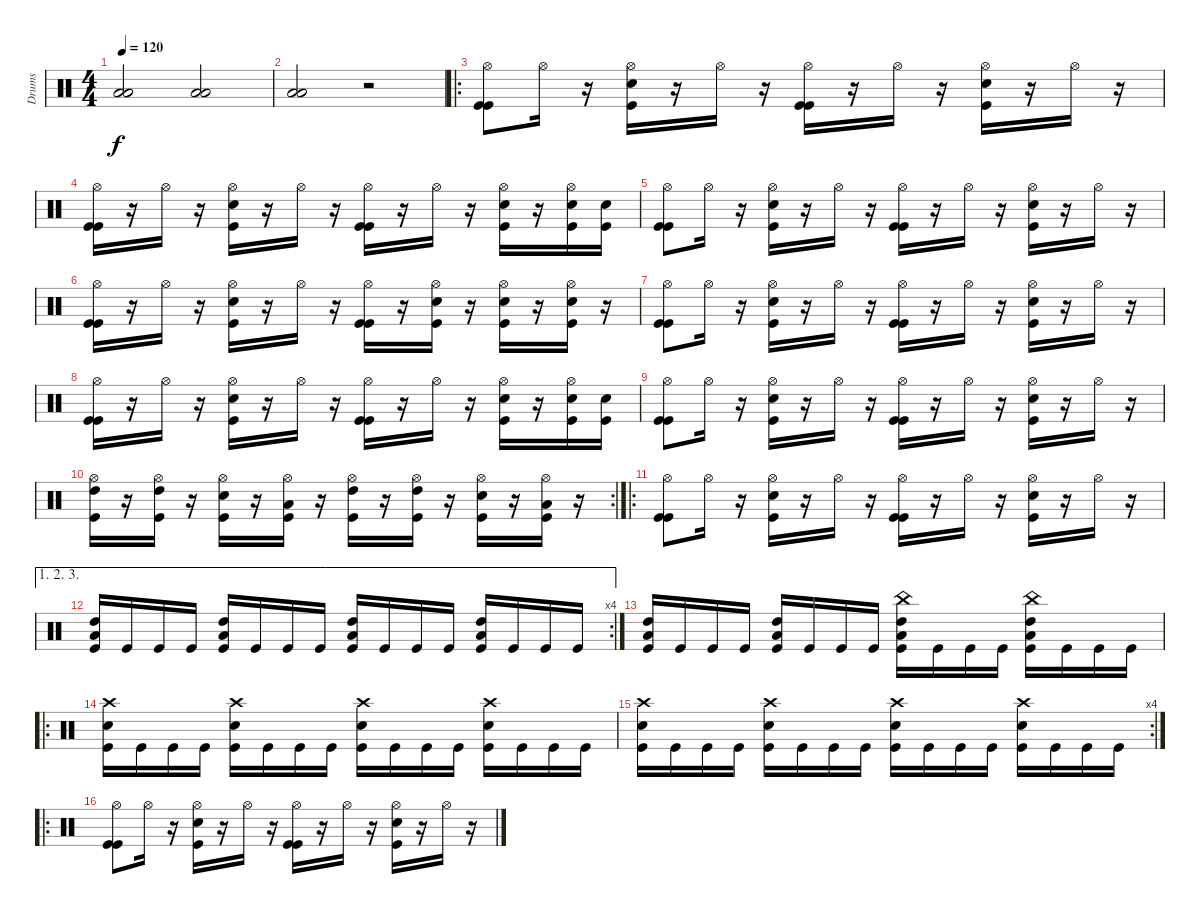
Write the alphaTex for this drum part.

\track ("Drums" "Drums") {instrument percussion}
\staff {score}
\articulation defaults
\ts (4 4)
\tempo 120
\clef neutral
\ks c
("Low Tom (hit)" "Low Tom (hit)").2{dy f} ("Low Tom (hit)" "Low Tom (hit)").2 |
("Low Tom (hit)" "Low Tom (hit)").2 r.2 |
\ro
("Hi-Hat (open)" "Kick (hit)" "Kick (hit)").8 "Hi-Hat (open)".16 r.16 ("Hi-Hat (open)" "Snare (hit) 2" "Kick (hit)").16 r.16 "Hi-Hat (open)".16 r.16 ("Hi-Hat (open)" "Kick (hit)" "Kick (hit)").16 r.16 "Hi-Hat (open)".16 r.16 ("Hi-Hat (open)" "Snare (hit) 2" "Kick (hit)").16 r.16 "Hi-Hat (open)".16 r.16 |
("Hi-Hat (open)" "Kick (hit)" "Kick (hit)").16 r.16 "Hi-Hat (open)".16 r.16 ("Hi-Hat (open)" "Snare (hit) 2" "Kick (hit)").16 r.16 "Hi-Hat (open)".16 r.16 ("Hi-Hat (open)" "Kick (hit)" "Kick (hit)").16 r.16 "Hi-Hat (open)".16 r.16 ("Hi-Hat (open)" "Snare (hit) 2" "Kick (hit)").16 r.16 ("Hi-Hat (open)" "Snare (hit) 2" "Kick (hit)").16 ("Snare (hit) 2" "Kick (hit)").16 |
("Hi-Hat (open)" "Kick (hit)" "Kick (hit)").8 "Hi-Hat (open)".16 r.16 ("Hi-Hat (open)" "Snare (hit) 2" "Kick (hit)").16 r.16 "Hi-Hat (open)".16 r.16 ("Hi-Hat (open)" "Kick (hit)" "Kick (hit)").16 r.16 "Hi-Hat (open)".16 r.16 ("Hi-Hat (open)" "Snare (hit) 2" "Kick (hit)").16 r.16 "Hi-Hat (open)".16 r.16 |
("Hi-Hat (open)" "Kick (hit)" "Kick (hit)").16 r.16 "Hi-Hat (open)".16 r.16 ("Hi-Hat (open)" "Snare (hit) 2" "Kick (hit)").16 r.16 "Hi-Hat (open)".16 r.16 ("Hi-Hat (open)" "Kick (hit)" "Kick (hit)").16 r.16 ("Hi-Hat (open)" "Snare (hit) 2" "Kick (hit)").16 r.16 ("Hi-Hat (open)" "Snare (hit) 2" "Kick (hit)").16 r.16 ("Hi-Hat (open)" "Snare (hit) 2" "Kick (hit)").16 r.16 |
("Hi-Hat (open)" "Kick (hit)" "Kick (hit)").8 "Hi-Hat (open)".16 r.16 ("Hi-Hat (open)" "Snare (hit) 2" "Kick (hit)").16 r.16 "Hi-Hat (open)".16 r.16 ("Hi-Hat (open)" "Kick (hit)" "Kick (hit)").16 r.16 "Hi-Hat (open)".16 r.16 ("Hi-Hat (open)" "Snare (hit) 2" "Kick (hit)").16 r.16 "Hi-Hat (open)".16 r.16 |
("Hi-Hat (open)" "Kick (hit)" "Kick (hit)").16 r.16 "Hi-Hat (open)".16 r.16 ("Hi-Hat (open)" "Snare (hit) 2" "Kick (hit)").16 r.16 "Hi-Hat (open)".16 r.16 ("Hi-Hat (open)" "Kick (hit)" "Kick (hit)").16 r.16 "Hi-Hat (open)".16 r.16 ("Hi-Hat (open)" "Snare (hit) 2" "Kick (hit)").16 r.16 ("Hi-Hat (open)" "Snare (hit) 2" "Kick (hit)").16 ("Snare (hit) 2" "Kick (hit)").16 |
("Hi-Hat (open)" "Kick (hit)" "Kick (hit)").8 "Hi-Hat (open)".16 r.16 ("Hi-Hat (open)" "Snare (hit) 2" "Kick (hit)").16 r.16 "Hi-Hat (open)".16 r.16 ("Hi-Hat (open)" "Kick (hit)" "Kick (hit)").16 r.16 "Hi-Hat (open)".16 r.16 ("Hi-Hat (open)" "Snare (hit) 2" "Kick (hit)").16 r.16 "Hi-Hat (open)".16 r.16 |
\rc 2
("Hi-Hat (open)" "High Tom (hit)" "Kick (hit)").16 r.16 ("Hi-Hat (open)" "High Tom (hit)" "Kick (hit)").16 r.16 ("Hi-Hat (open)" "Snare (hit) 2" "Kick (hit)").16 r.16 ("Hi-Hat (open)" "Low Tom (hit)" "Kick (hit)").16 r.16 ("Hi-Hat (open)" "High Tom (hit)" "Kick (hit)").16 r.16 ("Hi-Hat (open)" "High Tom (hit)" "Kick (hit)").16 r.16 ("Hi-Hat (open)" "Snare (hit) 2" "Kick (hit)").16 r.16 ("Hi-Hat (open)" "Low Tom (hit)" "Kick (hit)").16 r.16 |
\ro
("Hi-Hat (open)" "Kick (hit)" "Kick (hit)").8 "Hi-Hat (open)".16 r.16 ("Hi-Hat (open)" "Snare (hit) 2" "Kick (hit)").16 r.16 "Hi-Hat (open)".16 r.16 ("Hi-Hat (open)" "Kick (hit)" "Kick (hit)").16 r.16 "Hi-Hat (open)".16 r.16 ("Hi-Hat (open)" "Snare (hit) 2" "Kick (hit)").16 r.16 "Hi-Hat (open)".16 r.16 |
\ae (1 2 3)
\rc 4
("Low Tom (hit)" "High Tom (hit)" "Kick (hit)").16 "Kick (hit)".16 "Kick (hit)".16 "Kick (hit)".16 ("Low Tom (hit)" "High Tom (hit)" "Kick (hit)").16 "Kick (hit)".16 "Kick (hit)".16 "Kick (hit)".16 ("Low Tom (hit)" "High Tom (hit)" "Kick (hit)").16 "Kick (hit)".16 "Kick (hit)".16 "Kick (hit)".16 ("Low Tom (hit)" "High Tom (hit)" "Kick (hit)").16 "Kick (hit)".16 "Kick (hit)".16 "Kick (hit)".16 |
("Low Tom (hit)" "High Tom (hit)" "Kick (hit)").16 "Kick (hit)".16 "Kick (hit)".16 "Kick (hit)".16 ("Low Tom (hit)" "High Tom (hit)" "Kick (hit)").16 "Kick (hit)".16 "Kick (hit)".16 "Kick (hit)".16 ("China (hit)" "Low Tom (hit)" "High Tom (hit)" "Kick (hit)").16 "Kick (hit)".16 "Kick (hit)".16 "Kick (hit)".16 ("China (hit)" "Low Tom (hit)" "High Tom (hit)" "Kick (hit)").16 "Kick (hit)".16 "Kick (hit)".16 "Kick (hit)".16 |
\ro
("Crash high (hit)" "Snare (hit) 2" "Kick (hit)").16 "Kick (hit)".16 "Kick (hit)".16 "Kick (hit)".16 ("Crash high (hit)" "Snare (hit) 2" "Kick (hit)").16 "Kick (hit)".16 "Kick (hit)".16 "Kick (hit)".16 ("Crash high (hit)" "Snare (hit) 2" "Kick (hit)").16 "Kick (hit)".16 "Kick (hit)".16 "Kick (hit)".16 ("Crash high (hit)" "Snare (hit) 2" "Kick (hit)").16 "Kick (hit)".16 "Kick (hit)".16 "Kick (hit)".16 |
\rc 4
("Crash high (hit)" "Snare (hit) 2" "Kick (hit)").16 "Kick (hit)".16 "Kick (hit)".16 "Kick (hit)".16 ("Crash high (hit)" "Snare (hit) 2" "Kick (hit)").16 "Kick (hit)".16 "Kick (hit)".16 "Kick (hit)".16 ("Crash high (hit)" "Snare (hit) 2" "Kick (hit)").16 "Kick (hit)".16 "Kick (hit)".16 "Kick (hit)".16 ("Crash high (hit)" "Snare (hit) 2" "Kick (hit)").16 "Kick (hit)".16 "Kick (hit)".16 "Kick (hit)".16 |
\ro
("Hi-Hat (open)" "Kick (hit)" "Kick (hit)").8 "Hi-Hat (open)".16 r.16 ("Hi-Hat (open)" "Snare (hit) 2" "Kick (hit)").16 r.16 "Hi-Hat (open)".16 r.16 ("Hi-Hat (open)" "Kick (hit)" "Kick (hit)").16 r.16 "Hi-Hat (open)".16 r.16 ("Hi-Hat (open)" "Snare (hit) 2" "Kick (hit)").16 r.16 "Hi-Hat (open)".16 r.16
